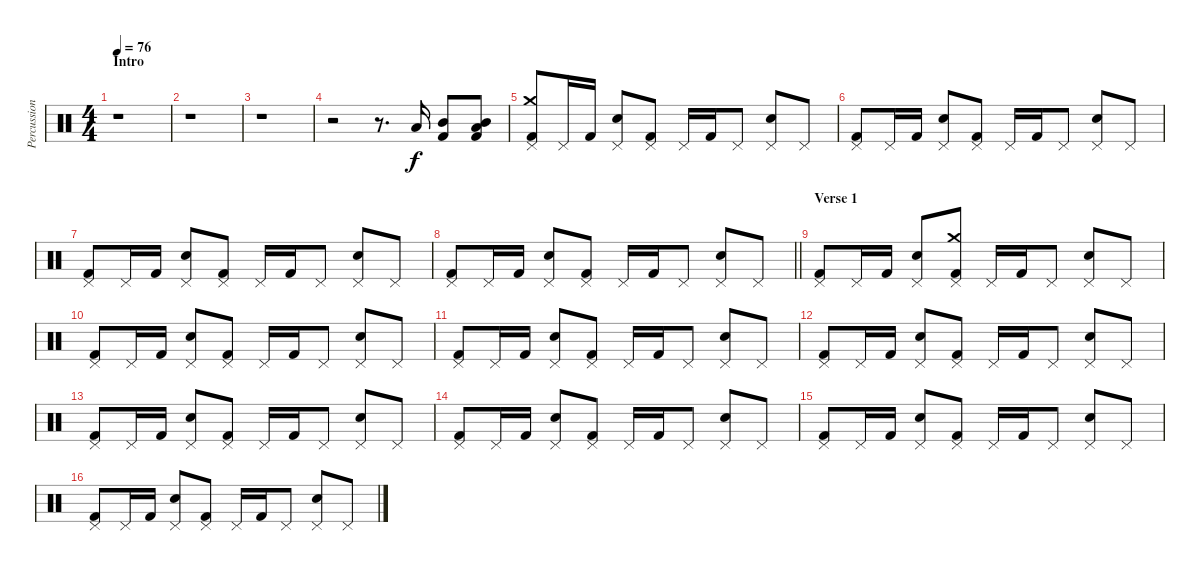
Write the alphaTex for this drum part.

\track ("Percussions" "Percussion") {instrument percussion}
\staff {score}
\articulation defaults
\ts (4 4)
\section ("" "Intro")
\tempo 76
\clef neutral
\ks c
r.1{dy f} |
r.1 |
r.1 |
r.2 r.8{d} "Low Floor Tom (hit)".16 ("Mid Tom (hit)" "Kick (hit) 2").8 ("Low Floor Tom (hit)" "Mid Tom (hit)" "Kick (hit) 2").8 |
("Crash medium (hit)" "Pedal Hi-Hat (hit)" "Kick (hit) 2").8 "Pedal Hi-Hat (hit)".16 "Kick (hit) 2".16 ("Pedal Hi-Hat (hit)" "Snare (hit) 2").8 ("Pedal Hi-Hat (hit)" "Kick (hit) 2").8 "Pedal Hi-Hat (hit)".16 "Kick (hit) 2".16 "Pedal Hi-Hat (hit)".8 ("Pedal Hi-Hat (hit)" "Snare (hit) 2").8 "Pedal Hi-Hat (hit)".8 |
("Pedal Hi-Hat (hit)" "Kick (hit) 2").8 "Pedal Hi-Hat (hit)".16 "Kick (hit) 2".16 ("Pedal Hi-Hat (hit)" "Snare (hit) 2").8 ("Pedal Hi-Hat (hit)" "Kick (hit) 2").8 "Pedal Hi-Hat (hit)".16 "Kick (hit) 2".16 "Pedal Hi-Hat (hit)".8 ("Pedal Hi-Hat (hit)" "Snare (hit) 2").8 "Pedal Hi-Hat (hit)".8 |
("Pedal Hi-Hat (hit)" "Kick (hit) 2").8 "Pedal Hi-Hat (hit)".16 "Kick (hit) 2".16 ("Pedal Hi-Hat (hit)" "Snare (hit) 2").8 ("Pedal Hi-Hat (hit)" "Kick (hit) 2").8 "Pedal Hi-Hat (hit)".16 "Kick (hit) 2".16 "Pedal Hi-Hat (hit)".8 ("Pedal Hi-Hat (hit)" "Snare (hit) 2").8 "Pedal Hi-Hat (hit)".8 |
\barLineRight lightlight
("Pedal Hi-Hat (hit)" "Kick (hit) 2").8 "Pedal Hi-Hat (hit)".16 "Kick (hit) 2".16 ("Pedal Hi-Hat (hit)" "Snare (hit) 2").8 ("Pedal Hi-Hat (hit)" "Kick (hit) 2").8 "Pedal Hi-Hat (hit)".16 "Kick (hit) 2".16 "Pedal Hi-Hat (hit)".8 ("Pedal Hi-Hat (hit)" "Snare (hit) 2").8 "Pedal Hi-Hat (hit)".8 |
\section ("" "Verse 1")
("Pedal Hi-Hat (hit)" "Kick (hit) 2").8 "Pedal Hi-Hat (hit)".16 "Kick (hit) 2".16 ("Pedal Hi-Hat (hit)" "Snare (hit) 2").8 ("Crash medium (hit)" "Pedal Hi-Hat (hit)" "Kick (hit) 2").8 "Pedal Hi-Hat (hit)".16 "Kick (hit) 2".16 "Pedal Hi-Hat (hit)".8 ("Pedal Hi-Hat (hit)" "Snare (hit) 2").8 "Pedal Hi-Hat (hit)".8 |
("Pedal Hi-Hat (hit)" "Kick (hit) 2").8 "Pedal Hi-Hat (hit)".16 "Kick (hit) 2".16 ("Pedal Hi-Hat (hit)" "Snare (hit) 2").8 ("Pedal Hi-Hat (hit)" "Kick (hit) 2").8 "Pedal Hi-Hat (hit)".16 "Kick (hit) 2".16 "Pedal Hi-Hat (hit)".8 ("Pedal Hi-Hat (hit)" "Snare (hit) 2").8 "Pedal Hi-Hat (hit)".8 |
("Pedal Hi-Hat (hit)" "Kick (hit) 2").8 "Pedal Hi-Hat (hit)".16 "Kick (hit) 2".16 ("Pedal Hi-Hat (hit)" "Snare (hit) 2").8 ("Pedal Hi-Hat (hit)" "Kick (hit) 2").8 "Pedal Hi-Hat (hit)".16 "Kick (hit) 2".16 "Pedal Hi-Hat (hit)".8 ("Pedal Hi-Hat (hit)" "Snare (hit) 2").8 "Pedal Hi-Hat (hit)".8 |
("Pedal Hi-Hat (hit)" "Kick (hit) 2").8 "Pedal Hi-Hat (hit)".16 "Kick (hit) 2".16 ("Pedal Hi-Hat (hit)" "Snare (hit) 2").8 ("Pedal Hi-Hat (hit)" "Kick (hit) 2").8 "Pedal Hi-Hat (hit)".16 "Kick (hit) 2".16 "Pedal Hi-Hat (hit)".8 ("Pedal Hi-Hat (hit)" "Snare (hit) 2").8 "Pedal Hi-Hat (hit)".8 |
("Pedal Hi-Hat (hit)" "Kick (hit) 2").8 "Pedal Hi-Hat (hit)".16 "Kick (hit) 2".16 ("Pedal Hi-Hat (hit)" "Snare (hit) 2").8 ("Pedal Hi-Hat (hit)" "Kick (hit) 2").8 "Pedal Hi-Hat (hit)".16 "Kick (hit) 2".16 "Pedal Hi-Hat (hit)".8 ("Pedal Hi-Hat (hit)" "Snare (hit) 2").8 "Pedal Hi-Hat (hit)".8 |
("Pedal Hi-Hat (hit)" "Kick (hit) 2").8 "Pedal Hi-Hat (hit)".16 "Kick (hit) 2".16 ("Pedal Hi-Hat (hit)" "Snare (hit) 2").8 ("Pedal Hi-Hat (hit)" "Kick (hit) 2").8 "Pedal Hi-Hat (hit)".16 "Kick (hit) 2".16 "Pedal Hi-Hat (hit)".8 ("Pedal Hi-Hat (hit)" "Snare (hit) 2").8 "Pedal Hi-Hat (hit)".8 |
("Pedal Hi-Hat (hit)" "Kick (hit) 2").8 "Pedal Hi-Hat (hit)".16 "Kick (hit) 2".16 ("Pedal Hi-Hat (hit)" "Snare (hit) 2").8 ("Pedal Hi-Hat (hit)" "Kick (hit) 2").8 "Pedal Hi-Hat (hit)".16 "Kick (hit) 2".16 "Pedal Hi-Hat (hit)".8 ("Pedal Hi-Hat (hit)" "Snare (hit) 2").8 "Pedal Hi-Hat (hit)".8 |
("Pedal Hi-Hat (hit)" "Kick (hit) 2").8 "Pedal Hi-Hat (hit)".16 "Kick (hit) 2".16 ("Pedal Hi-Hat (hit)" "Snare (hit) 2").8 ("Pedal Hi-Hat (hit)" "Kick (hit) 2").8 "Pedal Hi-Hat (hit)".16 "Kick (hit) 2".16 "Pedal Hi-Hat (hit)".8 ("Pedal Hi-Hat (hit)" "Snare (hit) 2").8 "Pedal Hi-Hat (hit)".8
